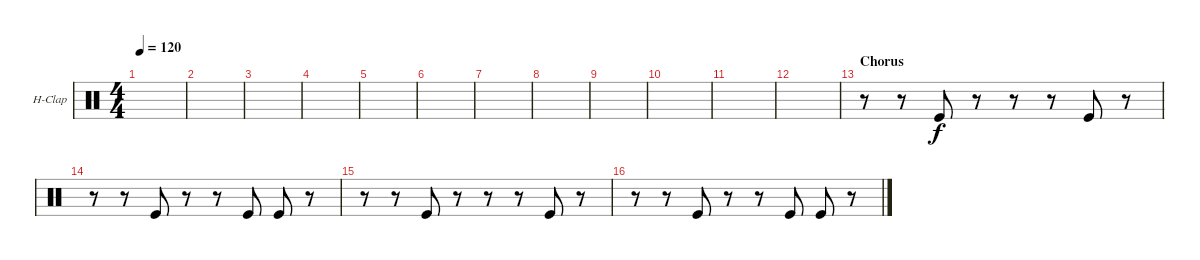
\defaultSystemsLayout 4
\bracketExtendMode groupsimilarinstruments
\firstSystemTrackNameOrientation horizontal
\otherSystemsTrackNameOrientation horizontal
\track ("Hand Clap" "H-Clap") {instrument percussion}
\staff {score}
\articulation defaults
\ts (4 4)
\tempo 120
\clef neutral
\ks c
|
|
|
|
|
|
|
|
|
|
|
|
\section ("" "Chorus")
r.8 r.8 "Kick (hit)".8 r.8 r.8 r.8 "Kick (hit)".8 r.8 |
r.8 r.8 "Kick (hit)".8 r.8 r.8 "Kick (hit)".8 "Kick (hit)".8 r.8 |
r.8 r.8 "Kick (hit)".8 r.8 r.8 r.8 "Kick (hit)".8 r.8 |
r.8 r.8 "Kick (hit)".8 r.8 r.8 "Kick (hit)".8 "Kick (hit)".8 r.8
